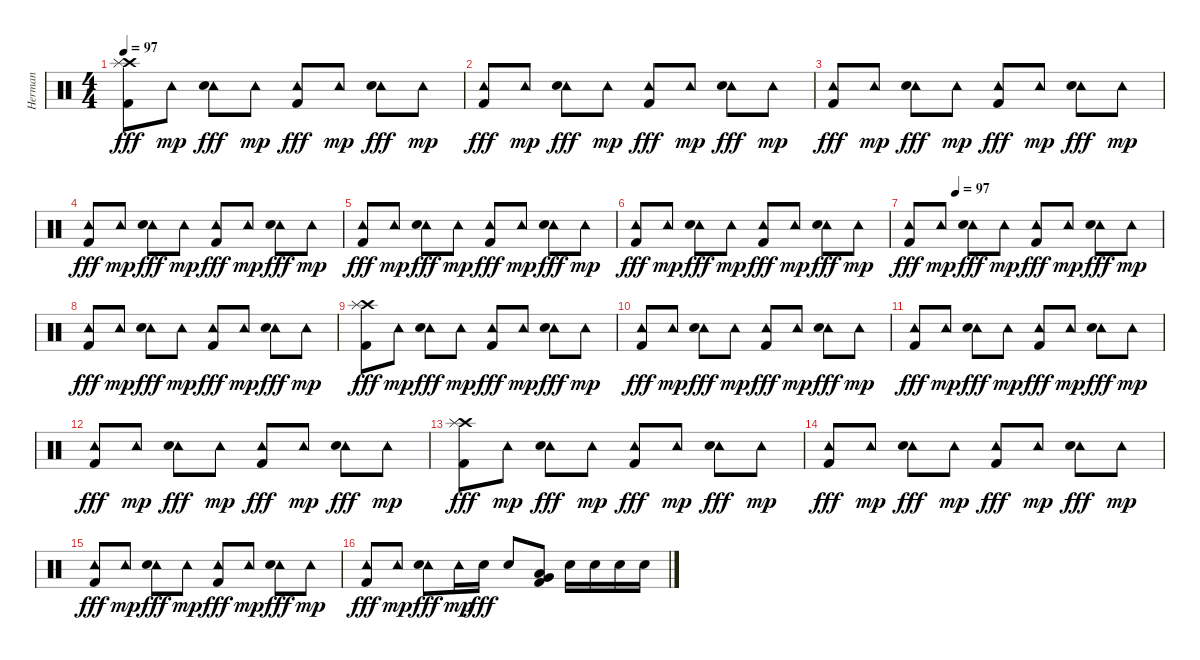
\track ("Herman" "Herman") {instrument percussion}
\staff {score}
\articulation defaults
\ts (4 4)
\tempo 97
\clef neutral
\ks c
("Crash high (hit)" "Splash (hit)" "Kick (hit) 2").8{dy fff} "Tambourine (hit)".8{dy mp} ("Tambourine (hit)" "Snare (hit) 2").8{dy fff} "Tambourine (hit)".8{dy mp} ("Tambourine (hit)" "Kick (hit) 2").8{dy fff} "Tambourine (hit)".8{dy mp} ("Tambourine (hit)" "Snare (hit) 2").8{dy fff} "Tambourine (hit)".8{dy mp} |
("Tambourine (hit)" "Kick (hit) 2").8{dy fff} "Tambourine (hit)".8{dy mp} ("Tambourine (hit)" "Snare (hit) 2").8{dy fff} "Tambourine (hit)".8{dy mp} ("Tambourine (hit)" "Kick (hit) 2").8{dy fff} "Tambourine (hit)".8{dy mp} ("Tambourine (hit)" "Snare (hit) 2").8{dy fff} "Tambourine (hit)".8{dy mp} |
("Tambourine (hit)" "Kick (hit) 2").8{dy fff} "Tambourine (hit)".8{dy mp} ("Tambourine (hit)" "Snare (hit) 2").8{dy fff} "Tambourine (hit)".8{dy mp} ("Tambourine (hit)" "Kick (hit) 2").8{dy fff} "Tambourine (hit)".8{dy mp} ("Tambourine (hit)" "Snare (hit) 2").8{dy fff} "Tambourine (hit)".8{dy mp} |
("Tambourine (hit)" "Kick (hit) 2").8{dy fff} "Tambourine (hit)".8{dy mp} ("Tambourine (hit)" "Snare (hit) 2").8{dy fff} "Tambourine (hit)".8{dy mp} ("Tambourine (hit)" "Kick (hit) 2").8{dy fff} "Tambourine (hit)".8{dy mp} ("Tambourine (hit)" "Snare (hit) 2").8{dy fff} "Tambourine (hit)".8{dy mp} |
("Tambourine (hit)" "Kick (hit) 2").8{dy fff} "Tambourine (hit)".8{dy mp} ("Tambourine (hit)" "Snare (hit) 2").8{dy fff} "Tambourine (hit)".8{dy mp} ("Tambourine (hit)" "Kick (hit) 2").8{dy fff} "Tambourine (hit)".8{dy mp} ("Tambourine (hit)" "Snare (hit) 2").8{dy fff} "Tambourine (hit)".8{dy mp} |
("Tambourine (hit)" "Kick (hit) 2").8{dy fff} "Tambourine (hit)".8{dy mp} ("Tambourine (hit)" "Snare (hit) 2").8{dy fff} "Tambourine (hit)".8{dy mp} ("Tambourine (hit)" "Kick (hit) 2").8{dy fff} "Tambourine (hit)".8{dy mp} ("Tambourine (hit)" "Snare (hit) 2").8{dy fff} "Tambourine (hit)".8{dy mp} |
\tempo (97 0.1875)
("Tambourine (hit)" "Kick (hit) 2").8{dy fff} "Tambourine (hit)".8{dy mp} ("Tambourine (hit)" "Snare (hit) 2").8{dy fff} "Tambourine (hit)".8{dy mp} ("Tambourine (hit)" "Kick (hit) 2").8{dy fff} "Tambourine (hit)".8{dy mp} ("Tambourine (hit)" "Snare (hit) 2").8{dy fff} "Tambourine (hit)".8{dy mp} |
("Tambourine (hit)" "Kick (hit) 2").8{dy fff} "Tambourine (hit)".8{dy mp} ("Tambourine (hit)" "Snare (hit) 2").8{dy fff} "Tambourine (hit)".8{dy mp} ("Tambourine (hit)" "Kick (hit) 2").8{dy fff} "Tambourine (hit)".8{dy mp} ("Tambourine (hit)" "Snare (hit) 2").8{dy fff} "Tambourine (hit)".8{dy mp} |
("Crash high (hit)" "Splash (hit)" "Kick (hit) 2").8{dy fff} "Tambourine (hit)".8{dy mp} ("Tambourine (hit)" "Snare (hit) 2").8{dy fff} "Tambourine (hit)".8{dy mp} ("Tambourine (hit)" "Kick (hit) 2").8{dy fff} "Tambourine (hit)".8{dy mp} ("Tambourine (hit)" "Snare (hit) 2").8{dy fff} "Tambourine (hit)".8{dy mp} |
("Tambourine (hit)" "Kick (hit) 2").8{dy fff} "Tambourine (hit)".8{dy mp} ("Tambourine (hit)" "Snare (hit) 2").8{dy fff} "Tambourine (hit)".8{dy mp} ("Tambourine (hit)" "Kick (hit) 2").8{dy fff} "Tambourine (hit)".8{dy mp} ("Tambourine (hit)" "Snare (hit) 2").8{dy fff} "Tambourine (hit)".8{dy mp} |
("Tambourine (hit)" "Kick (hit) 2").8{dy fff} "Tambourine (hit)".8{dy mp} ("Tambourine (hit)" "Snare (hit) 2").8{dy fff} "Tambourine (hit)".8{dy mp} ("Tambourine (hit)" "Kick (hit) 2").8{dy fff} "Tambourine (hit)".8{dy mp} ("Tambourine (hit)" "Snare (hit) 2").8{dy fff} "Tambourine (hit)".8{dy mp} |
("Tambourine (hit)" "Kick (hit) 2").8{dy fff} "Tambourine (hit)".8{dy mp} ("Tambourine (hit)" "Snare (hit) 2").8{dy fff} "Tambourine (hit)".8{dy mp} ("Tambourine (hit)" "Kick (hit) 2").8{dy fff} "Tambourine (hit)".8{dy mp} ("Tambourine (hit)" "Snare (hit) 2").8{dy fff} "Tambourine (hit)".8{dy mp} |
("Crash high (hit)" "Splash (hit)" "Kick (hit) 2").8{dy fff} "Tambourine (hit)".8{dy mp} ("Tambourine (hit)" "Snare (hit) 2").8{dy fff} "Tambourine (hit)".8{dy mp} ("Tambourine (hit)" "Kick (hit) 2").8{dy fff} "Tambourine (hit)".8{dy mp} ("Tambourine (hit)" "Snare (hit) 2").8{dy fff} "Tambourine (hit)".8{dy mp} |
("Tambourine (hit)" "Kick (hit) 2").8{dy fff} "Tambourine (hit)".8{dy mp} ("Tambourine (hit)" "Snare (hit) 2").8{dy fff} "Tambourine (hit)".8{dy mp} ("Tambourine (hit)" "Kick (hit) 2").8{dy fff} "Tambourine (hit)".8{dy mp} ("Tambourine (hit)" "Snare (hit) 2").8{dy fff} "Tambourine (hit)".8{dy mp} |
("Tambourine (hit)" "Kick (hit) 2").8{dy fff} "Tambourine (hit)".8{dy mp} ("Tambourine (hit)" "Snare (hit) 2").8{dy fff} "Tambourine (hit)".8{dy mp} ("Tambourine (hit)" "Kick (hit) 2").8{dy fff} "Tambourine (hit)".8{dy mp} ("Tambourine (hit)" "Snare (hit) 2").8{dy fff} "Tambourine (hit)".8{dy mp} |
("Tambourine (hit)" "Kick (hit) 2").8{dy fff} "Tambourine (hit)".8{dy mp} ("Tambourine (hit)" "Snare (hit) 2").8{dy fff} "Tambourine (hit)".16{dy mp} "Snare (hit) 2".16{dy fff} "Snare (hit) 2".8 ("Low Floor Tom (hit)" "Very Low Tom (hit)" "Kick (hit) 2").8 "Snare (hit) 2".16 "Snare (hit) 2".16 "Snare (hit) 2".16 "Snare (hit) 2".16
